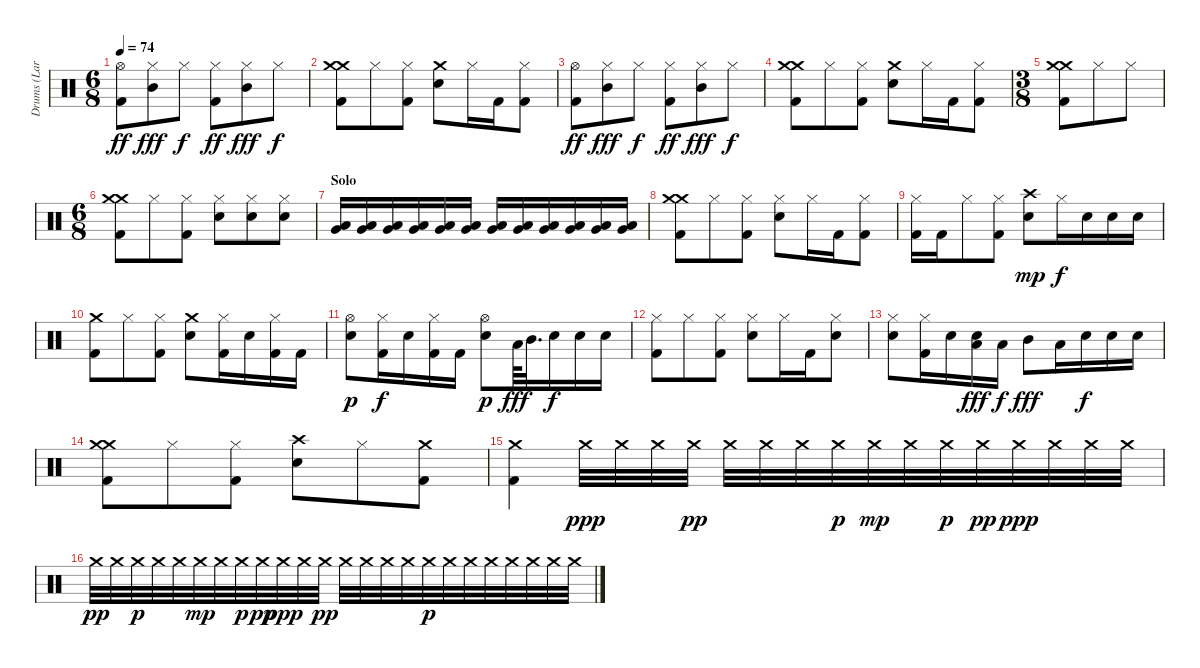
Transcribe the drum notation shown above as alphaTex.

\track ("Drums (Lars Ulrich)" "Drums (Lar") {instrument percussion}
\staff {score}
\articulation defaults
\ts (6 8)
\tempo 74
\clef neutral
\ks c
("Hi-Hat (open)" "Kick (hit) 2").8{dy ff} ("Hi-Hat (closed)" "Mid Tom (hit)").8{dy fff} "Hi-Hat (closed)".8{dy f} ("Hi-Hat (closed)" "Kick (hit) 2").8{dy ff} ("Hi-Hat (closed)" "Mid Tom (hit)").8{dy fff} "Hi-Hat (closed)".8{dy f} |
("Crash medium (hit)" "Crash medium (hit)" "Kick (hit) 2").8 "Hi-Hat (closed)".8 ("Hi-Hat (closed)" "Kick (hit) 2").8 ("Crash medium (hit)" "Snare (hit) 2").8 "Hi-Hat (closed)".16 "Kick (hit) 2".16 ("Hi-Hat (closed)" "Kick (hit) 2").8 |
("Hi-Hat (open)" "Kick (hit) 2").8{dy ff} ("Hi-Hat (closed)" "Mid Tom (hit)").8{dy fff} "Hi-Hat (closed)".8{dy f} ("Hi-Hat (closed)" "Kick (hit) 2").8{dy ff} ("Hi-Hat (closed)" "Mid Tom (hit)").8{dy fff} "Hi-Hat (closed)".8{dy f} |
("Crash medium (hit)" "Crash medium (hit)" "Kick (hit) 2").8 "Hi-Hat (closed)".8 ("Hi-Hat (closed)" "Kick (hit) 2").8 ("Crash medium (hit)" "Snare (hit) 2").8 "Hi-Hat (closed)".16 "Kick (hit) 2".16 ("Hi-Hat (closed)" "Kick (hit) 2").8 |
\ts (3 8)
("Crash medium (hit)" "Crash medium (hit)" "Kick (hit) 2").8 "Hi-Hat (closed)".8 "Hi-Hat (closed)".8 |
\ts (6 8)
("Crash medium (hit)" "Crash medium (hit)" "Kick (hit) 2").8 "Hi-Hat (closed)".8 ("Hi-Hat (closed)" "Kick (hit) 2").8 ("Hi-Hat (closed)" "Snare (hit) 2").8 ("Hi-Hat (closed)" "Snare (hit) 2").8 ("Hi-Hat (closed)" "Snare (hit) 2").8 |
\section ("" "Solo")
("Low Tom (hit)" "Very Low Tom (hit)").16 ("Low Tom (hit)" "Very Low Tom (hit)").16 ("Low Tom (hit)" "Very Low Tom (hit)").16 ("Low Tom (hit)" "Very Low Tom (hit)").16 ("Low Tom (hit)" "Very Low Tom (hit)").16 ("Low Tom (hit)" "Very Low Tom (hit)").16 ("Low Tom (hit)" "Very Low Tom (hit)").16 ("Low Tom (hit)" "Very Low Tom (hit)").16 ("Low Tom (hit)" "Very Low Tom (hit)").16 ("Low Tom (hit)" "Very Low Tom (hit)").16 ("Low Tom (hit)" "Very Low Tom (hit)").16 ("Low Tom (hit)" "Very Low Tom (hit)").16 |
("Crash medium (hit)" "Crash medium (hit)" "Kick (hit) 2").8 "Hi-Hat (closed)".8 ("Hi-Hat (closed)" "Kick (hit) 2").8 ("Hi-Hat (closed)" "Snare (hit) 2").8 "Hi-Hat (closed)".16 "Kick (hit) 2".16 ("Hi-Hat (closed)" "Kick (hit) 2").8 |
("Hi-Hat (closed)" "Kick (hit) 2").16 "Kick (hit) 2".16 "Hi-Hat (closed)".8 ("Hi-Hat (closed)" "Kick (hit) 2").8 ("Crash high (hit)" "Snare (hit) 2").8{dy mp} "Hi-Hat (closed)".16{dy f} "Snare (hit) 2".16 "Snare (hit) 2".16 "Snare (hit) 2".16 |
("Crash medium (hit)" "Kick (hit) 2").8 "Hi-Hat (closed)".8 ("Hi-Hat (closed)" "Kick (hit) 2").8 ("Crash medium (hit)" "Snare (hit) 2").8 ("Hi-Hat (closed)" "Kick (hit) 2").16 "Snare (hit) 2".16 ("Hi-Hat (closed)" "Kick (hit) 2").16 "Kick (hit) 2".16 |
("Hi-Hat (open)" "Snare (hit) 2").8{dy p} ("Hi-Hat (closed)" "Kick (hit) 2").16{dy f} "Snare (hit) 2".16 ("Hi-Hat (closed)" "Kick (hit) 2").16 "Kick (hit) 2".16 ("Hi-Hat (open)" "Snare (hit) 2").8{dy p} "Low Tom (hit)".64{dy fff} "Mid Tom (hit)".32{d} "Snare (hit) 2".16{dy f} "Snare (hit) 2".16 "Snare (hit) 2".16 |
("Hi-Hat (closed)" "Kick (hit) 2").8 "Hi-Hat (closed)".8 ("Hi-Hat (closed)" "Kick (hit) 2").8 ("Hi-Hat (closed)" "Snare (hit) 2").8 "Hi-Hat (closed)".16 "Kick (hit) 2".16 ("Hi-Hat (closed)" "Snare (hit) 2").8 |
("Hi-Hat (closed)" "Snare (hit) 2").8 ("Hi-Hat (closed)" "Kick (hit) 2").16 "Snare (hit) 2".16 ("Low Tom (hit)" "Snare (hit) 2").16{dy fff} "Low Tom (hit)".16{dy f} "Mid Tom (hit)".8{dy fff} "Low Tom (hit)".16 "Snare (hit) 2".16{dy f} "Snare (hit) 2".16 "Snare (hit) 2".16 |
("Crash medium (hit)" "Crash medium (hit)" "Kick (hit) 2").8 "Hi-Hat (closed)".8 ("Hi-Hat (closed)" "Kick (hit) 2").8 ("Crash high (hit)" "Snare (hit) 2").8 "Hi-Hat (closed)".8 ("Crash medium (hit)" "Kick (hit) 2").8 |
("Crash medium (hit)" "Kick (hit) 2").4 "Crash medium (hit)".32{dy ppp} "Crash medium (hit)".32 "Crash medium (hit)".32 "Crash medium (hit)".32{dy pp} "Crash medium (hit)".32 "Crash medium (hit)".32 "Crash medium (hit)".32 "Crash medium (hit)".32{dy p} "Crash medium (hit)".32{dy mp} "Crash medium (hit)".32 "Crash medium (hit)".32{dy p} "Crash medium (hit)".32{dy pp} "Crash medium (hit)".32{dy ppp} "Crash medium (hit)".32 "Crash medium (hit)".32 "Crash medium (hit)".32 |
"Crash medium (hit)".32{dy pp} "Crash medium (hit)".32 "Crash medium (hit)".32{dy p} "Crash medium (hit)".32 "Crash medium (hit)".32 "Crash medium (hit)".32{dy mp} "Crash medium (hit)".32 "Crash medium (hit)".32{dy p} "Crash medium (hit)".32{dy pp} "Crash medium (hit)".32{dy ppp} "Crash medium (hit)".32 "Crash medium (hit)".32{dy pp} "Crash medium (hit)".32 "Crash medium (hit)".32 "Crash medium (hit)".32 "Crash medium (hit)".32 "Crash medium (hit)".32{dy p} "Crash medium (hit)".32 "Crash medium (hit)".32 "Crash medium (hit)".32 "Crash medium (hit)".32 "Crash medium (hit)".32 "Crash medium (hit)".32 "Crash medium (hit)".32
